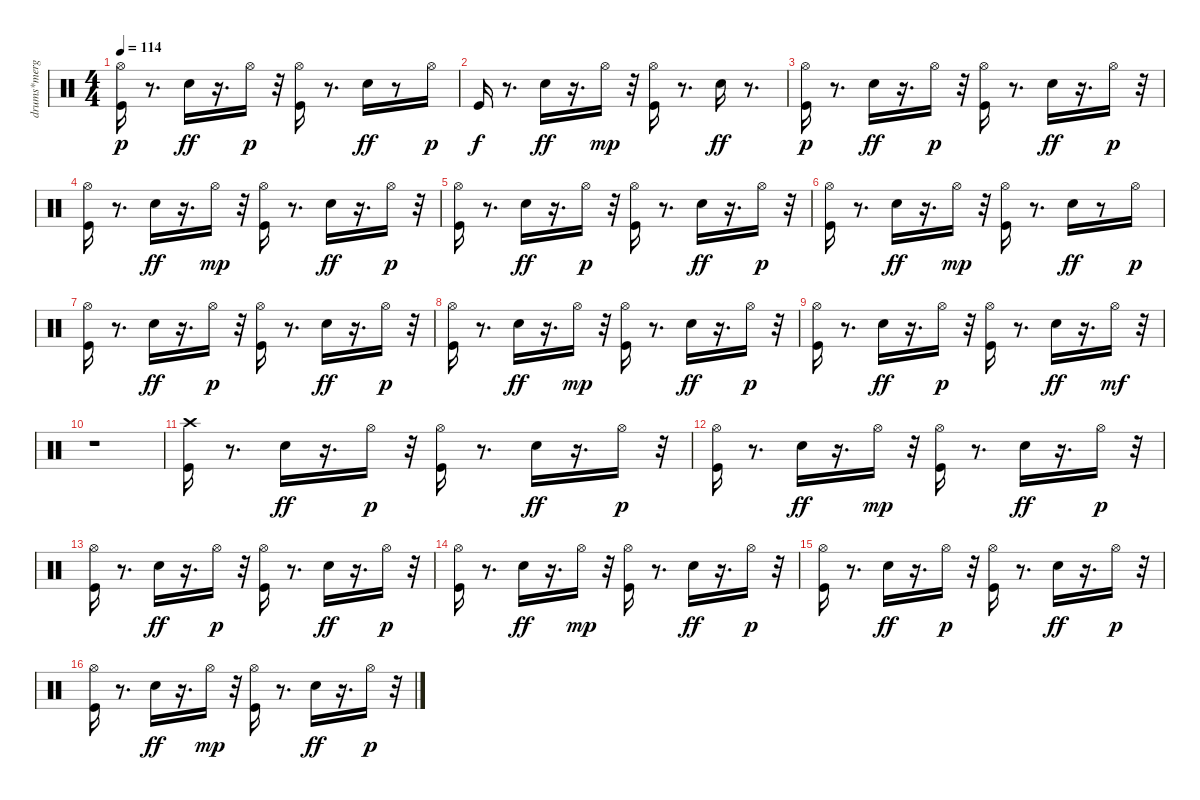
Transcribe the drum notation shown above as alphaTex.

\track ("drums*merged" "drums*merg") {instrument percussion}
\staff {score}
\articulation defaults
\ts (4 4)
\tempo 114
\clef neutral
\ks c
("Hi-Hat (open)" "Kick (hit)").16{dy p} r.8{d} "Snare (hit) 2".16{dy ff} r.16{d} "Hi-Hat (open)".16{dy p} r.32 ("Hi-Hat (open)" "Kick (hit)").16 r.8{d} "Snare (hit) 2".16{dy ff} r.8 "Hi-Hat (open)".16{dy p} |
"Kick (hit)".16{dy f} r.8{d} "Snare (hit) 2".16{dy ff} r.16{d} "Hi-Hat (open)".16{dy mp} r.32 ("Kick (hit)" "Hi-Hat (open)").16 r.8{d} "Snare (hit) 2".16{dy ff} r.8{d} |
("Kick (hit)" "Hi-Hat (open)").16{dy p} r.8{d} "Snare (hit) 2".16{dy ff} r.16{d} "Hi-Hat (open)".16{dy p} r.32 ("Hi-Hat (open)" "Kick (hit)").16 r.8{d} "Snare (hit) 2".16{dy ff} r.16{d} "Hi-Hat (open)".16{dy p} r.32 |
("Hi-Hat (open)" "Kick (hit)").16 r.8{d} "Snare (hit) 2".16{dy ff} r.16{d} "Hi-Hat (open)".16{dy mp} r.32 ("Hi-Hat (open)" "Kick (hit)").16 r.8{d} "Snare (hit) 2".16{dy ff} r.16{d} "Hi-Hat (open)".16{dy p} r.32 |
("Hi-Hat (open)" "Kick (hit)").16 r.8{d} "Snare (hit) 2".16{dy ff} r.16{d} "Hi-Hat (open)".16{dy p} r.32 ("Hi-Hat (open)" "Kick (hit)").16 r.8{d} "Snare (hit) 2".16{dy ff} r.16{d} "Hi-Hat (open)".16{dy p} r.32 |
("Hi-Hat (open)" "Kick (hit)").16 r.8{d} "Snare (hit) 2".16{dy ff} r.16{d} "Hi-Hat (open)".16{dy mp} r.32 ("Kick (hit)" "Hi-Hat (open)").16 r.8{d} "Snare (hit) 2".16{dy ff} r.8 "Hi-Hat (open)".16{dy p} |
("Kick (hit)" "Hi-Hat (open)").16 r.8{d} "Snare (hit) 2".16{dy ff} r.16{d} "Hi-Hat (open)".16{dy p} r.32 ("Hi-Hat (open)" "Kick (hit)").16 r.8{d} "Snare (hit) 2".16{dy ff} r.16{d} "Hi-Hat (open)".16{dy p} r.32 |
("Hi-Hat (open)" "Kick (hit)").16 r.8{d} "Snare (hit) 2".16{dy ff} r.16{d} "Hi-Hat (open)".16{dy mp} r.32 ("Hi-Hat (open)" "Kick (hit)").16 r.8{d} "Snare (hit) 2".16{dy ff} r.16{d} "Hi-Hat (open)".16{dy p} r.32 |
("Kick (hit)" "Hi-Hat (open)").16 r.8{d} "Snare (hit) 2".16{dy ff} r.16{d} "Hi-Hat (open)".16{dy p} r.32 ("Hi-Hat (open)" "Kick (hit)").16 r.8{d} "Snare (hit) 2".16{dy ff} r.16{d} "Hi-Hat (open)".16{dy mf} r.32 |
r.1 |
("Kick (hit)" "Crash high (hit)").16 r.8{d} "Snare (hit) 2".16{dy ff} r.16{d} "Hi-Hat (open)".16{dy p} r.32 ("Hi-Hat (open)" "Kick (hit)").16 r.8{d} "Snare (hit) 2".16{dy ff} r.16{d} "Hi-Hat (open)".16{dy p} r.32 |
("Hi-Hat (open)" "Kick (hit)").16 r.8{d} "Snare (hit) 2".16{dy ff} r.16{d} "Hi-Hat (open)".16{dy mp} r.32 ("Hi-Hat (open)" "Kick (hit)").16 r.8{d} "Snare (hit) 2".16{dy ff} r.16{d} "Hi-Hat (open)".16{dy p} r.32 |
("Hi-Hat (open)" "Kick (hit)").16 r.8{d} "Snare (hit) 2".16{dy ff} r.16{d} "Hi-Hat (open)".16{dy p} r.32 ("Hi-Hat (open)" "Kick (hit)").16 r.8{d} "Snare (hit) 2".16{dy ff} r.16{d} "Hi-Hat (open)".16{dy p} r.32 |
("Hi-Hat (open)" "Kick (hit)").16 r.8{d} "Snare (hit) 2".16{dy ff} r.16{d} "Hi-Hat (open)".16{dy mp} r.32 ("Kick (hit)" "Hi-Hat (open)").16 r.8{d} "Snare (hit) 2".16{dy ff} r.16{d} "Hi-Hat (open)".16{dy p} r.32 |
("Kick (hit)" "Hi-Hat (open)").16 r.8{d} "Snare (hit) 2".16{dy ff} r.16{d} "Hi-Hat (open)".16{dy p} r.32 ("Kick (hit)" "Hi-Hat (open)").16 r.8{d} "Snare (hit) 2".16{dy ff} r.16{d} "Hi-Hat (open)".16{dy p} r.32 |
("Hi-Hat (open)" "Kick (hit)").16 r.8{d} "Snare (hit) 2".16{dy ff} r.16{d} "Hi-Hat (open)".16{dy mp} r.32 ("Kick (hit)" "Hi-Hat (open)").16 r.8{d} "Snare (hit) 2".16{dy ff} r.16{d} "Hi-Hat (open)".16{dy p} r.32
